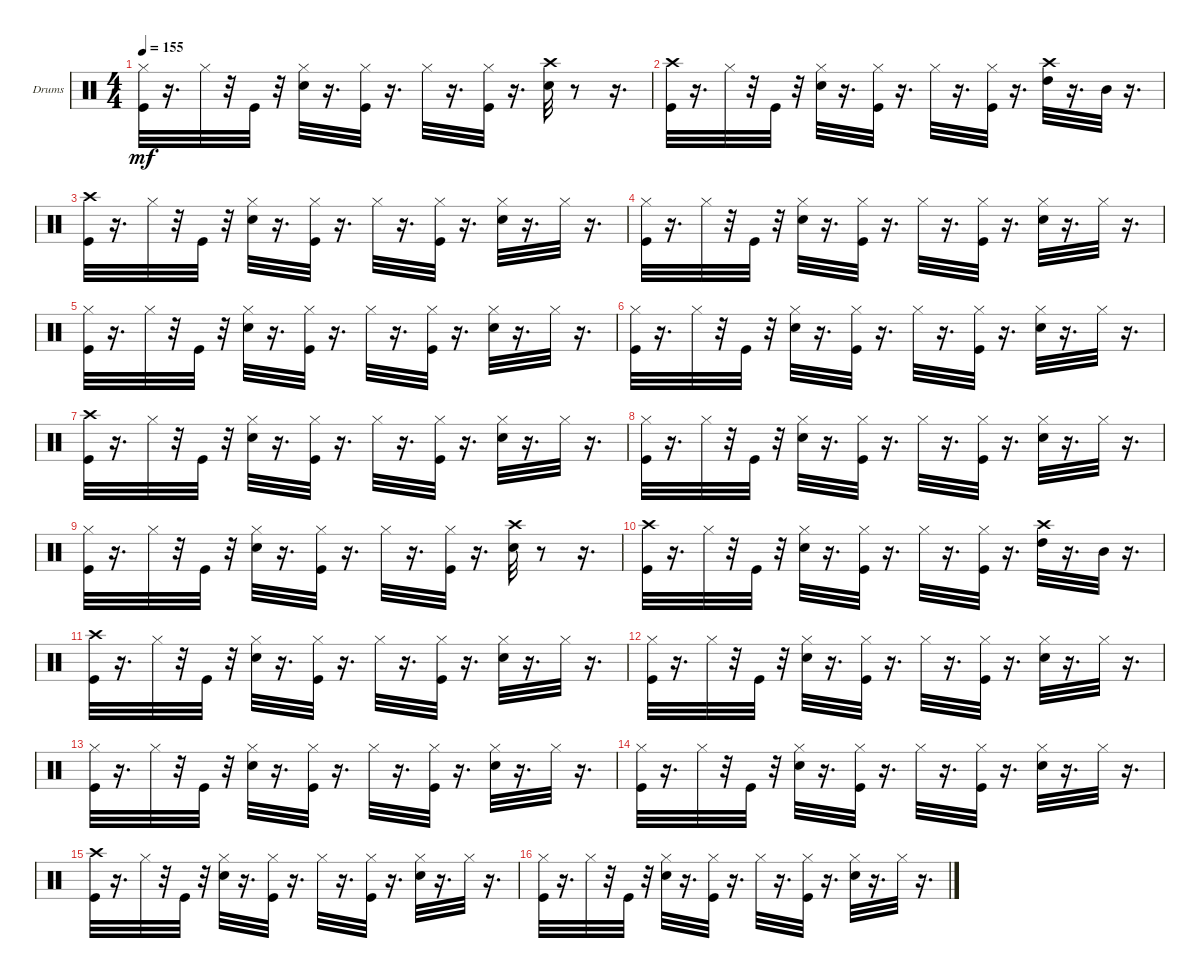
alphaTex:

\bracketExtendMode groupsimilarinstruments
\firstSystemTrackNameOrientation horizontal
\otherSystemsTrackNameOrientation horizontal
\track ("" "Drums") {instrument percussion}
\staff {score}
\articulation defaults
\ts (4 4)
\tempo 155
\clef neutral
\ks c
("Hi-Hat (closed)" "Kick (hit)").32{dy mf} r.16{d} "Hi-Hat (closed)".32 r.32 "Kick (hit)".32 r.32 ("Hi-Hat (closed)" "Snare (hit) 2").32 r.16{d} ("Kick (hit)" "Hi-Hat (closed)").32 r.16{d} "Hi-Hat (closed)".32 r.16{d} ("Kick (hit)" "Hi-Hat (closed)").32 r.16{d} ("Crash high (hit)" "Snare (hit) 2").32 r.8 r.16{d} |
("Crash high (hit)" "Kick (hit)").32 r.16{d} "Hi-Hat (closed)".32 r.32 "Kick (hit)".32 r.32 ("Hi-Hat (closed)" "Snare (hit) 2").32 r.16{d} ("Kick (hit)" "Hi-Hat (closed)").32 r.16{d} "Hi-Hat (closed)".32 r.16{d} ("Kick (hit)" "Hi-Hat (closed)").32 r.16{d} ("High Tom (hit)" "Crash high (hit)").32 r.16{d} "Mid Tom (hit)".32 r.16{d} |
("Crash high (hit)" "Kick (hit)").32 r.16{d} "Hi-Hat (closed)".32 r.32 "Kick (hit)".32 r.32 ("Hi-Hat (closed)" "Snare (hit) 2").32 r.16{d} ("Kick (hit)" "Hi-Hat (closed)").32 r.16{d} "Hi-Hat (closed)".32 r.16{d} ("Kick (hit)" "Hi-Hat (closed)").32 r.16{d} ("Hi-Hat (closed)" "Snare (hit) 2").32 r.16{d} "Hi-Hat (closed)".32 r.16{d} |
("Hi-Hat (closed)" "Kick (hit)").32 r.16{d} "Hi-Hat (closed)".32 r.32 "Kick (hit)".32 r.32 ("Hi-Hat (closed)" "Snare (hit) 2").32 r.16{d} ("Kick (hit)" "Hi-Hat (closed)").32 r.16{d} "Hi-Hat (closed)".32 r.16{d} ("Kick (hit)" "Hi-Hat (closed)").32 r.16{d} ("Hi-Hat (closed)" "Snare (hit) 2").32 r.16{d} "Hi-Hat (closed)".32 r.16{d} |
("Hi-Hat (closed)" "Kick (hit)").32 r.16{d} "Hi-Hat (closed)".32 r.32 "Kick (hit)".32 r.32 ("Hi-Hat (closed)" "Snare (hit) 2").32 r.16{d} ("Kick (hit)" "Hi-Hat (closed)").32 r.16{d} "Hi-Hat (closed)".32 r.16{d} ("Kick (hit)" "Hi-Hat (closed)").32 r.16{d} ("Hi-Hat (closed)" "Snare (hit) 2").32 r.16{d} "Hi-Hat (closed)".32 r.16{d} |
("Hi-Hat (closed)" "Kick (hit)").32 r.16{d} "Hi-Hat (closed)".32 r.32 "Kick (hit)".32 r.32 ("Hi-Hat (closed)" "Snare (hit) 2").32 r.16{d} ("Kick (hit)" "Hi-Hat (closed)").32 r.16{d} "Hi-Hat (closed)".32 r.16{d} ("Kick (hit)" "Hi-Hat (closed)").32 r.16{d} ("Hi-Hat (closed)" "Snare (hit) 2").32 r.16{d} "Hi-Hat (closed)".32 r.16{d} |
("Crash high (hit)" "Kick (hit)").32 r.16{d} "Hi-Hat (closed)".32 r.32 "Kick (hit)".32 r.32 ("Hi-Hat (closed)" "Snare (hit) 2").32 r.16{d} ("Kick (hit)" "Hi-Hat (closed)").32 r.16{d} "Hi-Hat (closed)".32 r.16{d} ("Kick (hit)" "Hi-Hat (closed)").32 r.16{d} ("Hi-Hat (closed)" "Snare (hit) 2").32 r.16{d} "Hi-Hat (closed)".32 r.16{d} |
("Hi-Hat (closed)" "Kick (hit)").32 r.16{d} "Hi-Hat (closed)".32 r.32 "Kick (hit)".32 r.32 ("Hi-Hat (closed)" "Snare (hit) 2").32 r.16{d} ("Kick (hit)" "Hi-Hat (closed)").32 r.16{d} "Hi-Hat (closed)".32 r.16{d} ("Kick (hit)" "Hi-Hat (closed)").32 r.16{d} ("Hi-Hat (closed)" "Snare (hit) 2").32 r.16{d} "Hi-Hat (closed)".32 r.16{d} |
("Hi-Hat (closed)" "Kick (hit)").32 r.16{d} "Hi-Hat (closed)".32 r.32 "Kick (hit)".32 r.32 ("Hi-Hat (closed)" "Snare (hit) 2").32 r.16{d} ("Kick (hit)" "Hi-Hat (closed)").32 r.16{d} "Hi-Hat (closed)".32 r.16{d} ("Kick (hit)" "Hi-Hat (closed)").32 r.16{d} ("Crash high (hit)" "Snare (hit) 2").32 r.8 r.16{d} |
("Crash high (hit)" "Kick (hit)").32 r.16{d} "Hi-Hat (closed)".32 r.32 "Kick (hit)".32 r.32 ("Hi-Hat (closed)" "Snare (hit) 2").32 r.16{d} ("Kick (hit)" "Hi-Hat (closed)").32 r.16{d} "Hi-Hat (closed)".32 r.16{d} ("Kick (hit)" "Hi-Hat (closed)").32 r.16{d} ("High Tom (hit)" "Crash high (hit)").32 r.16{d} "Mid Tom (hit)".32 r.16{d} |
("Crash high (hit)" "Kick (hit)").32 r.16{d} "Hi-Hat (closed)".32 r.32 "Kick (hit)".32 r.32 ("Hi-Hat (closed)" "Snare (hit) 2").32 r.16{d} ("Kick (hit)" "Hi-Hat (closed)").32 r.16{d} "Hi-Hat (closed)".32 r.16{d} ("Kick (hit)" "Hi-Hat (closed)").32 r.16{d} ("Hi-Hat (closed)" "Snare (hit) 2").32 r.16{d} "Hi-Hat (closed)".32 r.16{d} |
("Hi-Hat (closed)" "Kick (hit)").32 r.16{d} "Hi-Hat (closed)".32 r.32 "Kick (hit)".32 r.32 ("Hi-Hat (closed)" "Snare (hit) 2").32 r.16{d} ("Kick (hit)" "Hi-Hat (closed)").32 r.16{d} "Hi-Hat (closed)".32 r.16{d} ("Kick (hit)" "Hi-Hat (closed)").32 r.16{d} ("Hi-Hat (closed)" "Snare (hit) 2").32 r.16{d} "Hi-Hat (closed)".32 r.16{d} |
("Hi-Hat (closed)" "Kick (hit)").32 r.16{d} "Hi-Hat (closed)".32 r.32 "Kick (hit)".32 r.32 ("Hi-Hat (closed)" "Snare (hit) 2").32 r.16{d} ("Kick (hit)" "Hi-Hat (closed)").32 r.16{d} "Hi-Hat (closed)".32 r.16{d} ("Kick (hit)" "Hi-Hat (closed)").32 r.16{d} ("Hi-Hat (closed)" "Snare (hit) 2").32 r.16{d} "Hi-Hat (closed)".32 r.16{d} |
("Hi-Hat (closed)" "Kick (hit)").32 r.16{d} "Hi-Hat (closed)".32 r.32 "Kick (hit)".32 r.32 ("Hi-Hat (closed)" "Snare (hit) 2").32 r.16{d} ("Kick (hit)" "Hi-Hat (closed)").32 r.16{d} "Hi-Hat (closed)".32 r.16{d} ("Kick (hit)" "Hi-Hat (closed)").32 r.16{d} ("Hi-Hat (closed)" "Snare (hit) 2").32 r.16{d} "Hi-Hat (closed)".32 r.16{d} |
("Crash high (hit)" "Kick (hit)").32 r.16{d} "Hi-Hat (closed)".32 r.32 "Kick (hit)".32 r.32 ("Hi-Hat (closed)" "Snare (hit) 2").32 r.16{d} ("Kick (hit)" "Hi-Hat (closed)").32 r.16{d} "Hi-Hat (closed)".32 r.16{d} ("Kick (hit)" "Hi-Hat (closed)").32 r.16{d} ("Hi-Hat (closed)" "Snare (hit) 2").32 r.16{d} "Hi-Hat (closed)".32 r.16{d} |
("Hi-Hat (closed)" "Kick (hit)").32 r.16{d} "Hi-Hat (closed)".32 r.32 "Kick (hit)".32 r.32 ("Hi-Hat (closed)" "Snare (hit) 2").32 r.16{d} ("Kick (hit)" "Hi-Hat (closed)").32 r.16{d} "Hi-Hat (closed)".32 r.16{d} ("Kick (hit)" "Hi-Hat (closed)").32 r.16{d} ("Hi-Hat (closed)" "Snare (hit) 2").32 r.16{d} "Hi-Hat (closed)".32 r.16{d}
